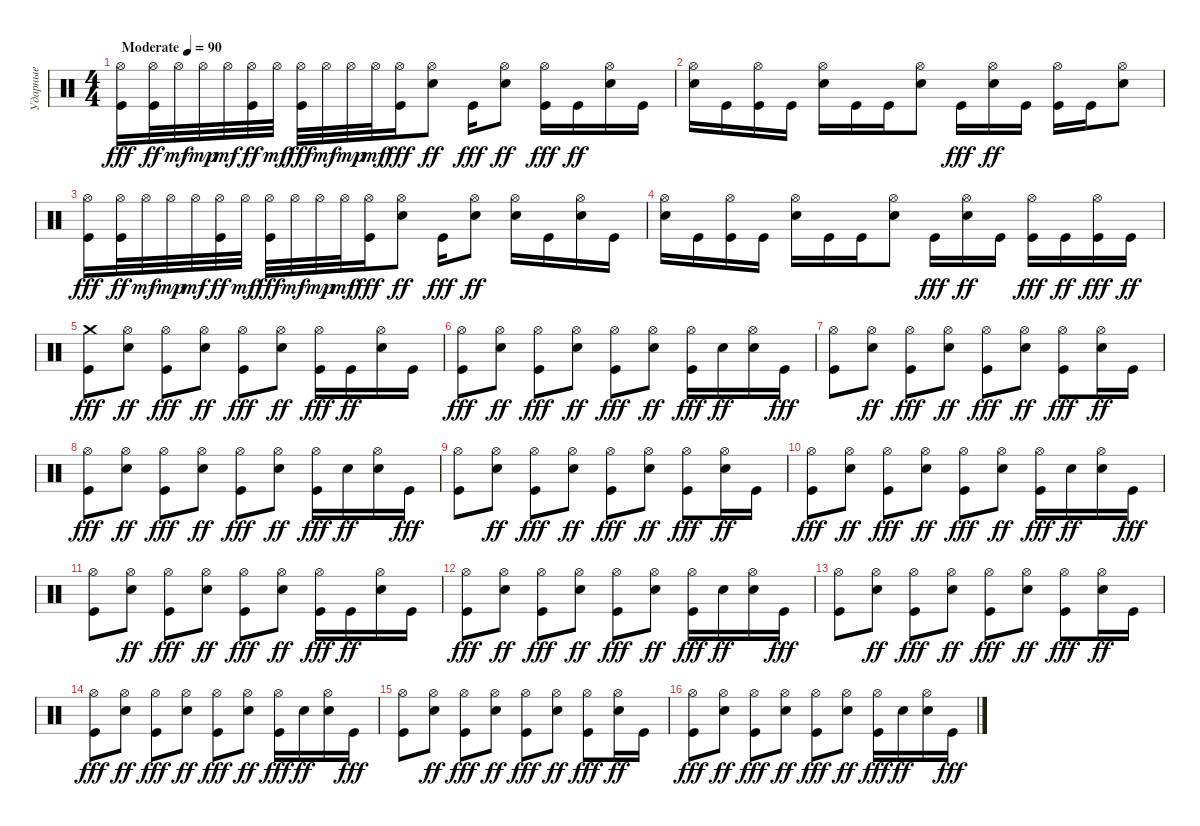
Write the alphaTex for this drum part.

\track ("Ударные" "Ударные") {instrument percussion}
\staff {score}
\articulation defaults
\ts (4 4)
\tempo (90 "Moderate")
\clef neutral
\ks c
("Hi-Hat (open)" "Kick (hit)").16{dy fff} ("Hi-Hat (open)" "Kick (hit)").32{dy ff} "Hi-Hat (open)".32{dy mf} "Hi-Hat (open)".32{dy mp} "Hi-Hat (open)".32{dy mf} ("Hi-Hat (open)" "Kick (hit)").32{dy ff} "Hi-Hat (open)".32{dy mf} ("Hi-Hat (open)" "Kick (hit)").32{dy fff} "Hi-Hat (open)".32{dy mf} "Hi-Hat (open)".32{dy mp} "Hi-Hat (open)".32{dy mf} ("Hi-Hat (open)" "Kick (hit)").16{dy fff} ("Hi-Hat (open)" "Electric Snare (hit)").8{dy ff} "Kick (hit)".16{dy fff} ("Hi-Hat (open)" "Electric Snare (hit)").8{dy ff} ("Hi-Hat (open)" "Kick (hit)").16{dy fff} "Kick (hit)".16{dy ff} ("Hi-Hat (open)" "Electric Snare (hit)").16 "Kick (hit)".16 |
("Hi-Hat (open)" "Electric Snare (hit)").16 "Kick (hit)".16 ("Hi-Hat (open)" "Kick (hit)").16 "Kick (hit)".16 ("Hi-Hat (open)" "Electric Snare (hit)").16 "Kick (hit)".16 "Kick (hit)".16 ("Hi-Hat (open)" "Electric Snare (hit)").8 "Kick (hit)".16{dy fff} ("Hi-Hat (open)" "Electric Snare (hit)").16{dy ff} "Kick (hit)".16 ("Hi-Hat (open)" "Kick (hit)").16 "Kick (hit)".16 ("Hi-Hat (open)" "Electric Snare (hit)").8 |
("Hi-Hat (open)" "Kick (hit)").16{dy fff} ("Hi-Hat (open)" "Kick (hit)").32{dy ff} "Hi-Hat (open)".32{dy mf} "Hi-Hat (open)".32{dy mp} "Hi-Hat (open)".32{dy mf} ("Hi-Hat (open)" "Kick (hit)").32{dy ff} "Hi-Hat (open)".32{dy mf} ("Hi-Hat (open)" "Kick (hit)").32{dy fff} "Hi-Hat (open)".32{dy mf} "Hi-Hat (open)".32{dy mp} "Hi-Hat (open)".32{dy mf} ("Hi-Hat (open)" "Kick (hit)").16{dy fff} ("Hi-Hat (open)" "Electric Snare (hit)").8{dy ff} "Kick (hit)".16{dy fff} ("Hi-Hat (open)" "Electric Snare (hit)").8{dy ff} ("Hi-Hat (open)" "Electric Snare (hit)").16 "Kick (hit)".16 ("Hi-Hat (open)" "Electric Snare (hit)").16 "Kick (hit)".16 |
("Hi-Hat (open)" "Electric Snare (hit)").16 "Kick (hit)".16 ("Hi-Hat (open)" "Kick (hit)").16 "Kick (hit)".16 ("Hi-Hat (open)" "Electric Snare (hit)").16 "Kick (hit)".16 "Kick (hit)".16 ("Hi-Hat (open)" "Electric Snare (hit)").8 "Kick (hit)".16{dy fff} ("Hi-Hat (open)" "Electric Snare (hit)").16{dy ff} "Kick (hit)".16 ("Hi-Hat (open)" "Kick (hit)").16{dy fff} "Kick (hit)".16{dy ff} ("Hi-Hat (open)" "Kick (hit)").16{dy fff} "Kick (hit)".16{dy ff} |
("Crash medium (hit)" "Kick (hit)").8{dy fff} ("Hi-Hat (open)" "Electric Snare (hit)").8{dy ff} ("Hi-Hat (open)" "Kick (hit)").8{dy fff} ("Hi-Hat (open)" "Electric Snare (hit)").8{dy ff} ("Hi-Hat (open)" "Kick (hit)").8{dy fff} ("Hi-Hat (open)" "Electric Snare (hit)").8{dy ff} ("Hi-Hat (open)" "Kick (hit)").16{dy fff} "Kick (hit)".16{dy ff} ("Hi-Hat (open)" "Electric Snare (hit)").16 "Kick (hit)".16 |
("Hi-Hat (open)" "Kick (hit)").8{dy fff} ("Hi-Hat (open)" "Electric Snare (hit)").8{dy ff} ("Hi-Hat (open)" "Kick (hit)").8{dy fff} ("Hi-Hat (open)" "Electric Snare (hit)").8{dy ff} ("Hi-Hat (open)" "Kick (hit)").8{dy fff} ("Hi-Hat (open)" "Electric Snare (hit)").8{dy ff} ("Hi-Hat (open)" "Kick (hit)").16{dy fff} "Electric Snare (hit)".16{dy ff} ("Hi-Hat (open)" "Electric Snare (hit)").16 "Kick (hit)".16{dy fff} |
("Hi-Hat (open)" "Kick (hit)").8 ("Hi-Hat (open)" "Electric Snare (hit)").8{dy ff} ("Hi-Hat (open)" "Kick (hit)").8{dy fff} ("Hi-Hat (open)" "Electric Snare (hit)").8{dy ff} ("Hi-Hat (open)" "Kick (hit)").8{dy fff} ("Hi-Hat (open)" "Electric Snare (hit)").8{dy ff} ("Hi-Hat (open)" "Kick (hit)").8{dy fff} ("Hi-Hat (open)" "Electric Snare (hit)").16{dy ff} "Kick (hit)".16 |
("Hi-Hat (open)" "Kick (hit)").8{dy fff} ("Hi-Hat (open)" "Electric Snare (hit)").8{dy ff} ("Hi-Hat (open)" "Kick (hit)").8{dy fff} ("Hi-Hat (open)" "Electric Snare (hit)").8{dy ff} ("Hi-Hat (open)" "Kick (hit)").8{dy fff} ("Hi-Hat (open)" "Electric Snare (hit)").8{dy ff} ("Hi-Hat (open)" "Kick (hit)").16{dy fff} "Electric Snare (hit)".16{dy ff} ("Hi-Hat (open)" "Electric Snare (hit)").16 "Kick (hit)".16{dy fff} |
("Hi-Hat (open)" "Kick (hit)").8 ("Hi-Hat (open)" "Electric Snare (hit)").8{dy ff} ("Hi-Hat (open)" "Kick (hit)").8{dy fff} ("Hi-Hat (open)" "Electric Snare (hit)").8{dy ff} ("Hi-Hat (open)" "Kick (hit)").8{dy fff} ("Hi-Hat (open)" "Electric Snare (hit)").8{dy ff} ("Hi-Hat (open)" "Kick (hit)").8{dy fff} ("Hi-Hat (open)" "Electric Snare (hit)").16{dy ff} "Kick (hit)".16 |
("Hi-Hat (open)" "Kick (hit)").8{dy fff} ("Hi-Hat (open)" "Electric Snare (hit)").8{dy ff} ("Hi-Hat (open)" "Kick (hit)").8{dy fff} ("Hi-Hat (open)" "Electric Snare (hit)").8{dy ff} ("Hi-Hat (open)" "Kick (hit)").8{dy fff} ("Hi-Hat (open)" "Electric Snare (hit)").8{dy ff} ("Hi-Hat (open)" "Kick (hit)").16{dy fff} "Electric Snare (hit)".16{dy ff} ("Hi-Hat (open)" "Electric Snare (hit)").16 "Kick (hit)".16{dy fff} |
("Hi-Hat (open)" "Kick (hit)").8 ("Hi-Hat (open)" "Electric Snare (hit)").8{dy ff} ("Hi-Hat (open)" "Kick (hit)").8{dy fff} ("Hi-Hat (open)" "Electric Snare (hit)").8{dy ff} ("Hi-Hat (open)" "Kick (hit)").8{dy fff} ("Hi-Hat (open)" "Electric Snare (hit)").8{dy ff} ("Hi-Hat (open)" "Kick (hit)").16{dy fff} "Kick (hit)".16{dy ff} ("Hi-Hat (open)" "Electric Snare (hit)").16 "Kick (hit)".16 |
("Hi-Hat (open)" "Kick (hit)").8{dy fff} ("Hi-Hat (open)" "Electric Snare (hit)").8{dy ff} ("Hi-Hat (open)" "Kick (hit)").8{dy fff} ("Hi-Hat (open)" "Electric Snare (hit)").8{dy ff} ("Hi-Hat (open)" "Kick (hit)").8{dy fff} ("Hi-Hat (open)" "Electric Snare (hit)").8{dy ff} ("Hi-Hat (open)" "Kick (hit)").16{dy fff} "Electric Snare (hit)".16{dy ff} ("Hi-Hat (open)" "Electric Snare (hit)").16 "Kick (hit)".16{dy fff} |
("Hi-Hat (open)" "Kick (hit)").8 ("Hi-Hat (open)" "Electric Snare (hit)").8{dy ff} ("Hi-Hat (open)" "Kick (hit)").8{dy fff} ("Hi-Hat (open)" "Electric Snare (hit)").8{dy ff} ("Hi-Hat (open)" "Kick (hit)").8{dy fff} ("Hi-Hat (open)" "Electric Snare (hit)").8{dy ff} ("Hi-Hat (open)" "Kick (hit)").8{dy fff} ("Hi-Hat (open)" "Electric Snare (hit)").16{dy ff} "Kick (hit)".16 |
("Hi-Hat (open)" "Kick (hit)").8{dy fff} ("Hi-Hat (open)" "Electric Snare (hit)").8{dy ff} ("Hi-Hat (open)" "Kick (hit)").8{dy fff} ("Hi-Hat (open)" "Electric Snare (hit)").8{dy ff} ("Hi-Hat (open)" "Kick (hit)").8{dy fff} ("Hi-Hat (open)" "Electric Snare (hit)").8{dy ff} ("Hi-Hat (open)" "Kick (hit)").16{dy fff} "Electric Snare (hit)".16{dy ff} ("Hi-Hat (open)" "Electric Snare (hit)").16 "Kick (hit)".16{dy fff} |
("Hi-Hat (open)" "Kick (hit)").8 ("Hi-Hat (open)" "Electric Snare (hit)").8{dy ff} ("Hi-Hat (open)" "Kick (hit)").8{dy fff} ("Hi-Hat (open)" "Electric Snare (hit)").8{dy ff} ("Hi-Hat (open)" "Kick (hit)").8{dy fff} ("Hi-Hat (open)" "Electric Snare (hit)").8{dy ff} ("Hi-Hat (open)" "Kick (hit)").8{dy fff} ("Hi-Hat (open)" "Electric Snare (hit)").16{dy ff} "Kick (hit)".16 |
("Hi-Hat (open)" "Kick (hit)").8{dy fff} ("Hi-Hat (open)" "Electric Snare (hit)").8{dy ff} ("Hi-Hat (open)" "Kick (hit)").8{dy fff} ("Hi-Hat (open)" "Electric Snare (hit)").8{dy ff} ("Hi-Hat (open)" "Kick (hit)").8{dy fff} ("Hi-Hat (open)" "Electric Snare (hit)").8{dy ff} ("Hi-Hat (open)" "Kick (hit)").16{dy fff} "Electric Snare (hit)".16{dy ff} ("Hi-Hat (open)" "Electric Snare (hit)").16 "Kick (hit)".16{dy fff}
